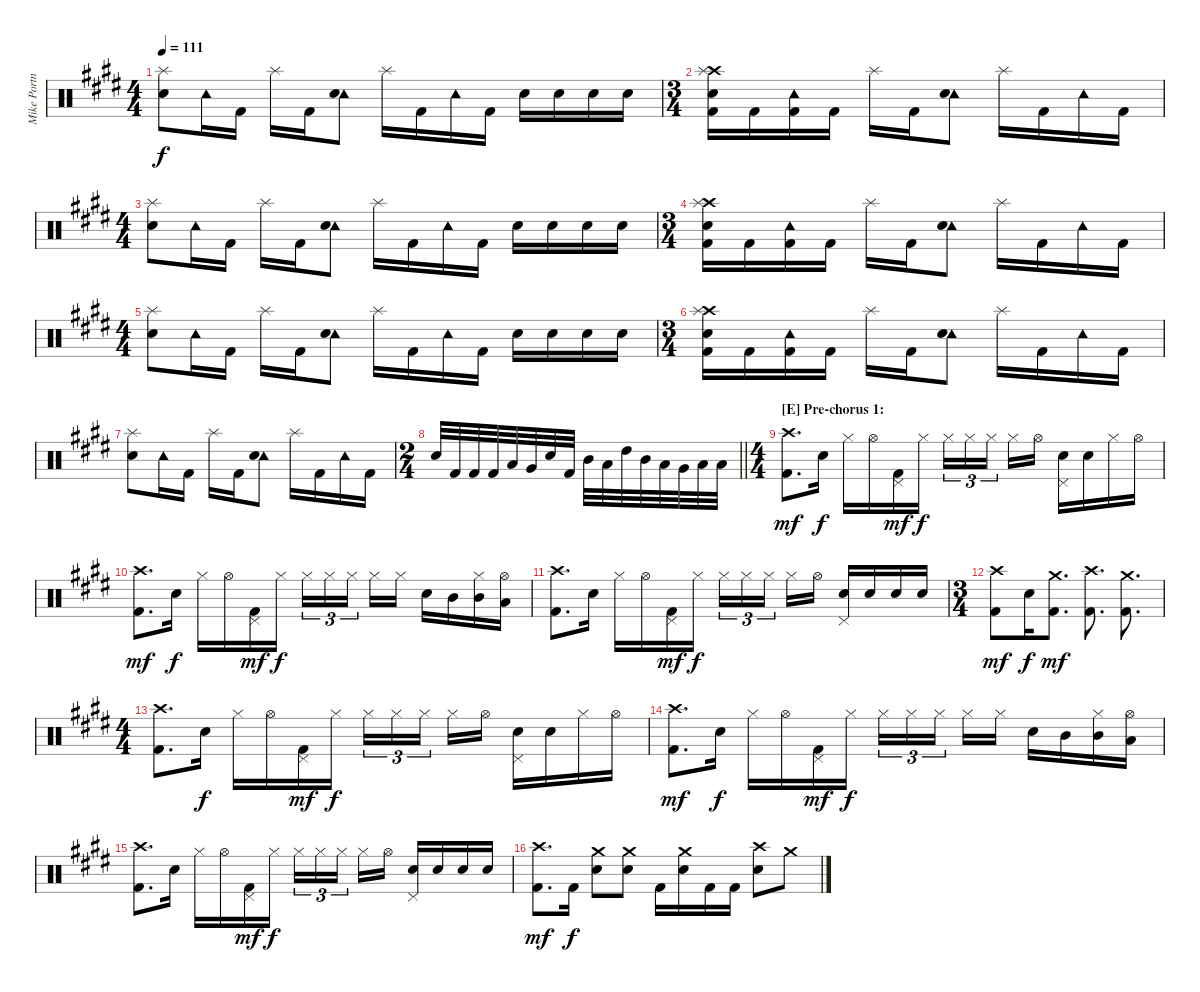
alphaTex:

\track ("Mike Portnoy - Drums" "Mike Portn") {instrument percussion}
\staff {score}
\articulation defaults
\ts (4 4)
\tempo 111
\clef neutral
\ks e
("Splash (hit)" "Electric Snare (hit)").8{dy f} "Tambourine (hit)".16 "Kick (hit) 2".16 "Splash (hit)".16 "Kick (hit) 2".16 ("Tambourine (hit)" "Electric Snare (hit)").8 "Splash (hit)".16 "Kick (hit) 2".16 "Tambourine (hit)".16 "Kick (hit) 2".16 "Electric Snare (hit)".16 "Electric Snare (hit)".16 "Electric Snare (hit)".16 "Electric Snare (hit)".16 |
\ts (3 4)
("Crash high (hit)" "Splash (hit)" "Electric Snare (hit)" "Kick (hit) 2").16 "Kick (hit) 2".16 ("Tambourine (hit)" "Kick (hit) 2").16 "Kick (hit) 2".16 "Splash (hit)".16 "Kick (hit) 2".16 ("Tambourine (hit)" "Electric Snare (hit)").8 "Splash (hit)".16 "Kick (hit) 2".16 "Tambourine (hit)".16 "Kick (hit) 2".16 |
\ts (4 4)
("Splash (hit)" "Electric Snare (hit)").8 "Tambourine (hit)".16 "Kick (hit) 2".16 "Splash (hit)".16 "Kick (hit) 2".16 ("Tambourine (hit)" "Electric Snare (hit)").8 "Splash (hit)".16 "Kick (hit) 2".16 "Tambourine (hit)".16 "Kick (hit) 2".16 "Electric Snare (hit)".16 "Electric Snare (hit)".16 "Electric Snare (hit)".16 "Electric Snare (hit)".16 |
\ts (3 4)
("Crash high (hit)" "Splash (hit)" "Electric Snare (hit)" "Kick (hit) 2").16 "Kick (hit) 2".16 ("Tambourine (hit)" "Kick (hit) 2").16 "Kick (hit) 2".16 "Splash (hit)".16 "Kick (hit) 2".16 ("Tambourine (hit)" "Electric Snare (hit)").8 "Splash (hit)".16 "Kick (hit) 2".16 "Tambourine (hit)".16 "Kick (hit) 2".16 |
\ts (4 4)
("Splash (hit)" "Electric Snare (hit)").8 "Tambourine (hit)".16 "Kick (hit) 2".16 "Splash (hit)".16 "Kick (hit) 2".16 ("Tambourine (hit)" "Electric Snare (hit)").8 "Splash (hit)".16 "Kick (hit) 2".16 "Tambourine (hit)".16 "Kick (hit) 2".16 "Electric Snare (hit)".16 "Electric Snare (hit)".16 "Electric Snare (hit)".16 "Electric Snare (hit)".16 |
\ts (3 4)
("Crash high (hit)" "Splash (hit)" "Electric Snare (hit)" "Kick (hit) 2").16 "Kick (hit) 2".16 ("Tambourine (hit)" "Kick (hit) 2").16 "Kick (hit) 2".16 "Splash (hit)".16 "Kick (hit) 2".16 ("Tambourine (hit)" "Electric Snare (hit)").8 "Splash (hit)".16 "Kick (hit) 2".16 "Tambourine (hit)".16 "Kick (hit) 2".16 |
("Splash (hit)" "Electric Snare (hit)").8 "Tambourine (hit)".16 "Kick (hit) 2".16 "Splash (hit)".16 "Kick (hit) 2".16 ("Tambourine (hit)" "Electric Snare (hit)").8 "Splash (hit)".16 "Kick (hit) 2".16 "Tambourine (hit)".16 "Kick (hit) 2".16 |
\ts (2 4)
\barLineRight lightlight "Electric Snare (hit)".32 "Kick (hit) 2".32 "Kick (hit) 2".32 "Kick (hit) 2".32 "Low Tom (hit)".32 "Very Low Tom (hit)".32 "Electric Snare (hit)".32 "Kick (hit) 2".32 "Mid Tom (hit)".32 "Low Tom (hit)".32 "High Tom (hit)".32 "Mid Tom (hit)".32 "Low Tom (hit)".32 "Very Low Tom (hit)".32 "Low Floor Tom (hit)".32 "Low Floor Tom (hit)".32
|
\ts (4 4)
\section ("" "[E] Pre-chorus 1:")
\ks c#minor
("Crash high (hit)" "Kick (hit) 2").8{d dy mf} "Electric Snare (hit)".16{dy f} "Hi-Hat (closed)".16 "Hi-Hat (open)".16 ("Pedal Hi-Hat (hit)" "Kick (hit) 2").16{dy mf} "Hi-Hat (closed)".16{dy f} "Hi-Hat (closed)".16{tu (3 2)} "Hi-Hat (closed)".16{tu (3 2)} "Hi-Hat (closed)".16{tu (3 2) beam splitsecondary} "Hi-Hat (closed)".16 "Hi-Hat (open)".16 ("Pedal Hi-Hat (hit)" "Electric Snare (hit)").16 "Electric Snare (hit)".16 "Hi-Hat (closed)".16 "Hi-Hat (open)".16 |
("Crash high (hit)" "Kick (hit) 2").8{d dy mf} "Electric Snare (hit)".16{dy f} "Hi-Hat (closed)".16 "Hi-Hat (open)".16 ("Pedal Hi-Hat (hit)" "Kick (hit) 2").16{dy mf} "Hi-Hat (closed)".16{dy f} "Hi-Hat (closed)".16{tu (3 2)} "Hi-Hat (closed)".16{tu (3 2)} "Hi-Hat (closed)".16{tu (3 2) beam splitsecondary} "Hi-Hat (closed)".16 "Hi-Hat (closed)".16 "Electric Snare (hit)".16 "Mid Tom (hit)".16 ("Hi-Hat (closed)" "Mid Tom (hit)").16 ("Hi-Hat (open)" "Low Tom (hit)").16 |
\ks e
("Crash high (hit)" "Kick (hit) 2").8{d} "Electric Snare (hit)".16 "Hi-Hat (closed)".16 "Hi-Hat (open)".16 ("Pedal Hi-Hat (hit)" "Kick (hit) 2").16{dy mf} "Hi-Hat (closed)".16{dy f} "Hi-Hat (closed)".16{tu (3 2)} "Hi-Hat (closed)".16{tu (3 2)} "Hi-Hat (closed)".16{tu (3 2) beam splitsecondary} "Hi-Hat (closed)".16 "Hi-Hat (open)".16 ("Pedal Hi-Hat (hit)" "Electric Snare (hit)").16 "Electric Snare (hit)".16 "Electric Snare (hit)".16 "Electric Snare (hit)".16 |
\ts (3 4)
\ks c#minor
("Crash high (hit)" "Kick (hit) 2").8{dy mf} "Electric Snare (hit)".16{dy f} ("Crash medium (hit)" "Kick (hit) 2").8{d dy mf} ("Crash high (hit)" "Kick (hit) 2").8{d} ("Crash medium (hit)" "Kick (hit) 2").8{d} |
\ts (4 4)
("Crash high (hit)" "Kick (hit) 2").8{d} "Electric Snare (hit)".16{dy f} "Hi-Hat (closed)".16 "Hi-Hat (open)".16 ("Pedal Hi-Hat (hit)" "Kick (hit) 2").16{dy mf} "Hi-Hat (closed)".16{dy f} "Hi-Hat (closed)".16{tu (3 2)} "Hi-Hat (closed)".16{tu (3 2)} "Hi-Hat (closed)".16{tu (3 2) beam splitsecondary} "Hi-Hat (closed)".16 "Hi-Hat (open)".16 ("Pedal Hi-Hat (hit)" "Electric Snare (hit)").16 "Electric Snare (hit)".16 "Hi-Hat (closed)".16 "Hi-Hat (open)".16 |
\ks e
("Crash high (hit)" "Kick (hit) 2").8{d dy mf} "Electric Snare (hit)".16{dy f} "Hi-Hat (closed)".16 "Hi-Hat (open)".16 ("Pedal Hi-Hat (hit)" "Kick (hit) 2").16{dy mf} "Hi-Hat (closed)".16{dy f} "Hi-Hat (closed)".16{tu (3 2)} "Hi-Hat (closed)".16{tu (3 2)} "Hi-Hat (closed)".16{tu (3 2) beam splitsecondary} "Hi-Hat (closed)".16 "Hi-Hat (closed)".16 "Electric Snare (hit)".16 "Mid Tom (hit)".16 ("Hi-Hat (closed)" "Mid Tom (hit)").16 ("Hi-Hat (open)" "Low Tom (hit)").16 |
\ks c#minor
("Crash high (hit)" "Kick (hit) 2").8{d} "Electric Snare (hit)".16 "Hi-Hat (closed)".16 "Hi-Hat (open)".16 ("Pedal Hi-Hat (hit)" "Kick (hit) 2").16{dy mf} "Hi-Hat (closed)".16{dy f} "Hi-Hat (closed)".16{tu (3 2)} "Hi-Hat (closed)".16{tu (3 2)} "Hi-Hat (closed)".16{tu (3 2) beam splitsecondary} "Hi-Hat (closed)".16 "Hi-Hat (open)".16 ("Pedal Hi-Hat (hit)" "Electric Snare (hit)").16 "Electric Snare (hit)".16 "Electric Snare (hit)".16 "Electric Snare (hit)".16 |
("Crash high (hit)" "Kick (hit) 2").8{d dy mf} "Kick (hit) 2".16{dy f} ("Crash medium (hit)" "Electric Snare (hit)").8 ("Crash medium (hit)" "Electric Snare (hit)").8 "Kick (hit) 2".16 ("Crash medium (hit)" "Electric Snare (hit)").16 "Kick (hit) 2".16 "Kick (hit) 2".16 ("Crash high (hit)" "Electric Snare (hit)").8 "Crash medium (hit)".8
